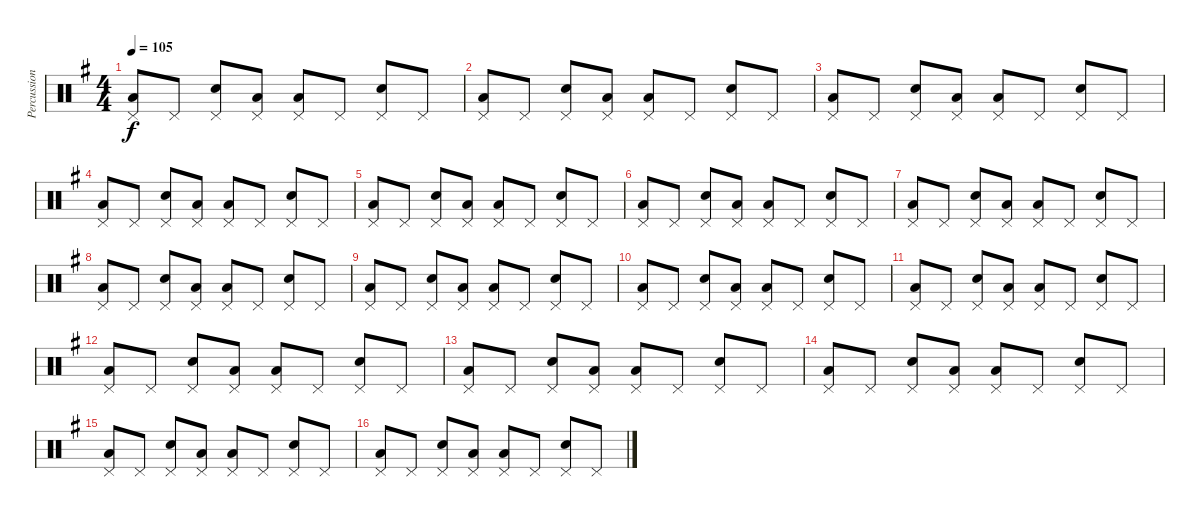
\track ("Percussion" "Percussion") {instrument percussion}
\staff {score}
\articulation defaults
\ts (4 4)
\tempo 105
\clef neutral
\ks g
("Pedal Hi-Hat (hit)" "Low Floor Tom (hit)").8{dy f} "Pedal Hi-Hat (hit)".8 ("Pedal Hi-Hat (hit)" "Snare (hit) 2").8 ("Pedal Hi-Hat (hit)" "Low Floor Tom (hit)").8 ("Pedal Hi-Hat (hit)" "Low Floor Tom (hit)").8 "Pedal Hi-Hat (hit)".8 ("Pedal Hi-Hat (hit)" "Snare (hit) 2").8 "Pedal Hi-Hat (hit)".8 |
("Pedal Hi-Hat (hit)" "Low Floor Tom (hit)").8 "Pedal Hi-Hat (hit)".8 ("Pedal Hi-Hat (hit)" "Snare (hit) 2").8 ("Pedal Hi-Hat (hit)" "Low Floor Tom (hit)").8 ("Pedal Hi-Hat (hit)" "Low Floor Tom (hit)").8 "Pedal Hi-Hat (hit)".8 ("Pedal Hi-Hat (hit)" "Snare (hit) 2").8 "Pedal Hi-Hat (hit)".8 |
("Pedal Hi-Hat (hit)" "Low Floor Tom (hit)").8 "Pedal Hi-Hat (hit)".8 ("Pedal Hi-Hat (hit)" "Snare (hit) 2").8 ("Pedal Hi-Hat (hit)" "Low Floor Tom (hit)").8 ("Pedal Hi-Hat (hit)" "Low Floor Tom (hit)").8 "Pedal Hi-Hat (hit)".8 ("Pedal Hi-Hat (hit)" "Snare (hit) 2").8 "Pedal Hi-Hat (hit)".8 |
("Pedal Hi-Hat (hit)" "Low Floor Tom (hit)").8 "Pedal Hi-Hat (hit)".8 ("Pedal Hi-Hat (hit)" "Snare (hit) 2").8 ("Pedal Hi-Hat (hit)" "Low Floor Tom (hit)").8 ("Pedal Hi-Hat (hit)" "Low Floor Tom (hit)").8 "Pedal Hi-Hat (hit)".8 ("Pedal Hi-Hat (hit)" "Snare (hit) 2").8 "Pedal Hi-Hat (hit)".8 |
("Pedal Hi-Hat (hit)" "Low Floor Tom (hit)").8 "Pedal Hi-Hat (hit)".8 ("Pedal Hi-Hat (hit)" "Snare (hit) 2").8 ("Pedal Hi-Hat (hit)" "Low Floor Tom (hit)").8 ("Pedal Hi-Hat (hit)" "Low Floor Tom (hit)").8 "Pedal Hi-Hat (hit)".8 ("Pedal Hi-Hat (hit)" "Snare (hit) 2").8 "Pedal Hi-Hat (hit)".8 |
("Pedal Hi-Hat (hit)" "Low Floor Tom (hit)").8 "Pedal Hi-Hat (hit)".8 ("Pedal Hi-Hat (hit)" "Snare (hit) 2").8 ("Pedal Hi-Hat (hit)" "Low Floor Tom (hit)").8 ("Pedal Hi-Hat (hit)" "Low Floor Tom (hit)").8 "Pedal Hi-Hat (hit)".8 ("Pedal Hi-Hat (hit)" "Snare (hit) 2").8 "Pedal Hi-Hat (hit)".8 |
("Pedal Hi-Hat (hit)" "Low Floor Tom (hit)").8 "Pedal Hi-Hat (hit)".8 ("Pedal Hi-Hat (hit)" "Snare (hit) 2").8 ("Pedal Hi-Hat (hit)" "Low Floor Tom (hit)").8 ("Pedal Hi-Hat (hit)" "Low Floor Tom (hit)").8 "Pedal Hi-Hat (hit)".8 ("Pedal Hi-Hat (hit)" "Snare (hit) 2").8 "Pedal Hi-Hat (hit)".8 |
("Pedal Hi-Hat (hit)" "Low Floor Tom (hit)").8 "Pedal Hi-Hat (hit)".8 ("Pedal Hi-Hat (hit)" "Snare (hit) 2").8 ("Pedal Hi-Hat (hit)" "Low Floor Tom (hit)").8 ("Pedal Hi-Hat (hit)" "Low Floor Tom (hit)").8 "Pedal Hi-Hat (hit)".8 ("Pedal Hi-Hat (hit)" "Snare (hit) 2").8 "Pedal Hi-Hat (hit)".8 |
("Pedal Hi-Hat (hit)" "Low Floor Tom (hit)").8 "Pedal Hi-Hat (hit)".8 ("Pedal Hi-Hat (hit)" "Snare (hit) 2").8 ("Pedal Hi-Hat (hit)" "Low Floor Tom (hit)").8 ("Pedal Hi-Hat (hit)" "Low Floor Tom (hit)").8 "Pedal Hi-Hat (hit)".8 ("Pedal Hi-Hat (hit)" "Snare (hit) 2").8 "Pedal Hi-Hat (hit)".8 |
("Pedal Hi-Hat (hit)" "Low Floor Tom (hit)").8 "Pedal Hi-Hat (hit)".8 ("Pedal Hi-Hat (hit)" "Snare (hit) 2").8 ("Pedal Hi-Hat (hit)" "Low Floor Tom (hit)").8 ("Pedal Hi-Hat (hit)" "Low Floor Tom (hit)").8 "Pedal Hi-Hat (hit)".8 ("Pedal Hi-Hat (hit)" "Snare (hit) 2").8 "Pedal Hi-Hat (hit)".8 |
("Pedal Hi-Hat (hit)" "Low Floor Tom (hit)").8 "Pedal Hi-Hat (hit)".8 ("Pedal Hi-Hat (hit)" "Snare (hit) 2").8 ("Pedal Hi-Hat (hit)" "Low Floor Tom (hit)").8 ("Pedal Hi-Hat (hit)" "Low Floor Tom (hit)").8 "Pedal Hi-Hat (hit)".8 ("Pedal Hi-Hat (hit)" "Snare (hit) 2").8 "Pedal Hi-Hat (hit)".8 |
("Pedal Hi-Hat (hit)" "Low Floor Tom (hit)").8 "Pedal Hi-Hat (hit)".8 ("Pedal Hi-Hat (hit)" "Snare (hit) 2").8 ("Pedal Hi-Hat (hit)" "Low Floor Tom (hit)").8 ("Pedal Hi-Hat (hit)" "Low Floor Tom (hit)").8 "Pedal Hi-Hat (hit)".8 ("Pedal Hi-Hat (hit)" "Snare (hit) 2").8 "Pedal Hi-Hat (hit)".8 |
("Pedal Hi-Hat (hit)" "Low Floor Tom (hit)").8 "Pedal Hi-Hat (hit)".8 ("Pedal Hi-Hat (hit)" "Snare (hit) 2").8 ("Pedal Hi-Hat (hit)" "Low Floor Tom (hit)").8 ("Pedal Hi-Hat (hit)" "Low Floor Tom (hit)").8 "Pedal Hi-Hat (hit)".8 ("Pedal Hi-Hat (hit)" "Snare (hit) 2").8 "Pedal Hi-Hat (hit)".8 |
("Pedal Hi-Hat (hit)" "Low Floor Tom (hit)").8 "Pedal Hi-Hat (hit)".8 ("Pedal Hi-Hat (hit)" "Snare (hit) 2").8 ("Pedal Hi-Hat (hit)" "Low Floor Tom (hit)").8 ("Pedal Hi-Hat (hit)" "Low Floor Tom (hit)").8 "Pedal Hi-Hat (hit)".8 ("Pedal Hi-Hat (hit)" "Snare (hit) 2").8 "Pedal Hi-Hat (hit)".8 |
("Pedal Hi-Hat (hit)" "Low Floor Tom (hit)").8 "Pedal Hi-Hat (hit)".8 ("Pedal Hi-Hat (hit)" "Snare (hit) 2").8 ("Pedal Hi-Hat (hit)" "Low Floor Tom (hit)").8 ("Pedal Hi-Hat (hit)" "Low Floor Tom (hit)").8 "Pedal Hi-Hat (hit)".8 ("Pedal Hi-Hat (hit)" "Snare (hit) 2").8 "Pedal Hi-Hat (hit)".8 |
("Pedal Hi-Hat (hit)" "Low Floor Tom (hit)").8 "Pedal Hi-Hat (hit)".8 ("Pedal Hi-Hat (hit)" "Snare (hit) 2").8 ("Pedal Hi-Hat (hit)" "Low Floor Tom (hit)").8 ("Pedal Hi-Hat (hit)" "Low Floor Tom (hit)").8 "Pedal Hi-Hat (hit)".8 ("Pedal Hi-Hat (hit)" "Snare (hit) 2").8 "Pedal Hi-Hat (hit)".8
